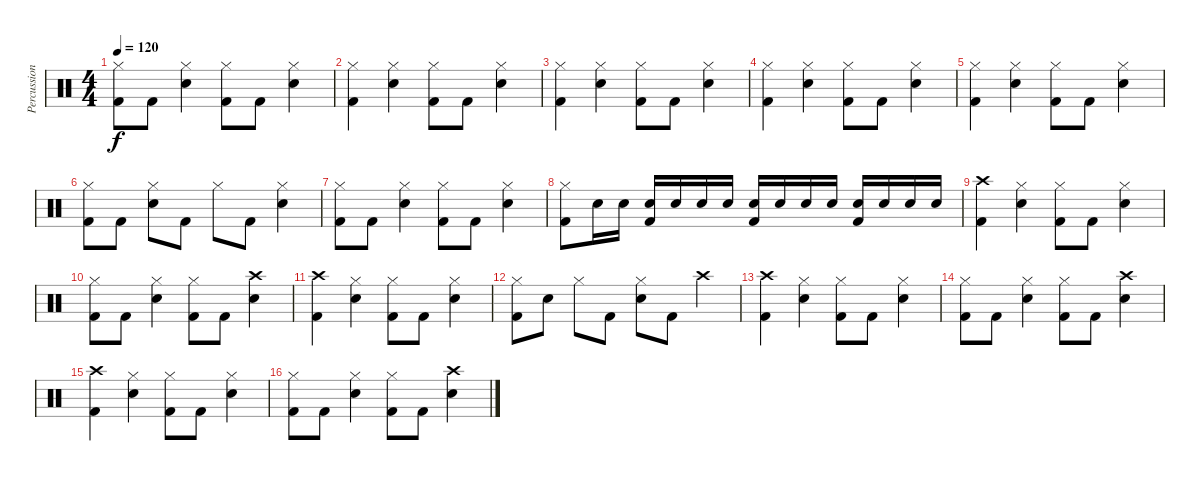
\track ("Percussion" "Percussion") {instrument percussion}
\staff {score}
\articulation defaults
\ts (4 4)
\tempo 120
\clef neutral
\ks c
("Hi-Hat (closed)" "Kick (hit) 2").8{dy f} "Kick (hit) 2".8 ("Hi-Hat (closed)" "Snare (hit) 2").4 ("Hi-Hat (closed)" "Kick (hit) 2").8 "Kick (hit) 2".8 ("Hi-Hat (closed)" "Snare (hit) 2").4 |
("Hi-Hat (closed)" "Kick (hit) 2").4 ("Hi-Hat (closed)" "Snare (hit) 2").4 ("Hi-Hat (closed)" "Kick (hit) 2").8 "Kick (hit) 2".8 ("Hi-Hat (closed)" "Snare (hit) 2").4 |
("Hi-Hat (closed)" "Kick (hit) 2").4 ("Hi-Hat (closed)" "Snare (hit) 2").4 ("Hi-Hat (closed)" "Kick (hit) 2").8 "Kick (hit) 2".8 ("Hi-Hat (closed)" "Snare (hit) 2").4 |
("Hi-Hat (closed)" "Kick (hit) 2").4 ("Hi-Hat (closed)" "Snare (hit) 2").4 ("Hi-Hat (closed)" "Kick (hit) 2").8 "Kick (hit) 2".8 ("Hi-Hat (closed)" "Snare (hit) 2").4 |
("Hi-Hat (closed)" "Kick (hit) 2").4 ("Hi-Hat (closed)" "Snare (hit) 2").4 ("Hi-Hat (closed)" "Kick (hit) 2").8 "Kick (hit) 2".8 ("Hi-Hat (closed)" "Snare (hit) 2").4 |
("Hi-Hat (closed)" "Kick (hit) 2").8 "Kick (hit) 2".8 ("Hi-Hat (closed)" "Snare (hit) 2").8 "Kick (hit) 2".8 "Hi-Hat (closed)".8 "Kick (hit) 2".8 ("Hi-Hat (closed)" "Snare (hit) 2").4 |
("Hi-Hat (closed)" "Kick (hit) 2").8 "Kick (hit) 2".8 ("Hi-Hat (closed)" "Snare (hit) 2").4 ("Hi-Hat (closed)" "Kick (hit) 2").8 "Kick (hit) 2".8 ("Hi-Hat (closed)" "Snare (hit) 2").4 |
("Hi-Hat (closed)" "Kick (hit) 2").8 "Snare (hit) 2".16 "Snare (hit) 2".16 ("Snare (hit) 2" "Kick (hit) 2").16 "Snare (hit) 2".16 "Snare (hit) 2".16 "Snare (hit) 2".16 ("Snare (hit) 2" "Kick (hit) 2").16 "Snare (hit) 2".16 "Snare (hit) 2".16 "Snare (hit) 2".16 ("Snare (hit) 2" "Kick (hit) 2").16 "Snare (hit) 2".16 "Snare (hit) 2".16 "Snare (hit) 2".16 |
("Crash high (hit)" "Kick (hit) 2").4 ("Hi-Hat (closed)" "Snare (hit) 2").4 ("Hi-Hat (closed)" "Kick (hit) 2").8 "Kick (hit) 2".8 ("Hi-Hat (closed)" "Snare (hit) 2").4 |
("Hi-Hat (closed)" "Kick (hit) 2").8 "Kick (hit) 2".8 ("Hi-Hat (closed)" "Snare (hit) 2").4 ("Hi-Hat (closed)" "Kick (hit) 2").8 "Kick (hit) 2".8 ("Crash high (hit)" "Snare (hit) 2").4 |
("Crash high (hit)" "Kick (hit) 2").4 ("Hi-Hat (closed)" "Snare (hit) 2").4 ("Hi-Hat (closed)" "Kick (hit) 2").8 "Kick (hit) 2".8 ("Hi-Hat (closed)" "Snare (hit) 2").4 |
("Hi-Hat (closed)" "Kick (hit) 2").8 "Snare (hit) 2".8 "Hi-Hat (closed)".8 "Kick (hit) 2".8 ("Hi-Hat (closed)" "Snare (hit) 2").8 "Kick (hit) 2".8 "Crash high (hit)".4 |
("Crash high (hit)" "Kick (hit) 2").4 ("Hi-Hat (closed)" "Snare (hit) 2").4 ("Hi-Hat (closed)" "Kick (hit) 2").8 "Kick (hit) 2".8 ("Hi-Hat (closed)" "Snare (hit) 2").4 |
("Hi-Hat (closed)" "Kick (hit) 2").8 "Kick (hit) 2".8 ("Hi-Hat (closed)" "Snare (hit) 2").4 ("Hi-Hat (closed)" "Kick (hit) 2").8 "Kick (hit) 2".8 ("Crash high (hit)" "Snare (hit) 2").4 |
("Crash high (hit)" "Kick (hit) 2").4 ("Hi-Hat (closed)" "Snare (hit) 2").4 ("Hi-Hat (closed)" "Kick (hit) 2").8 "Kick (hit) 2".8 ("Hi-Hat (closed)" "Snare (hit) 2").4 |
("Hi-Hat (closed)" "Kick (hit) 2").8 "Kick (hit) 2".8 ("Hi-Hat (closed)" "Snare (hit) 2").4 ("Hi-Hat (closed)" "Kick (hit) 2").8 "Kick (hit) 2".8 ("Crash high (hit)" "Snare (hit) 2").4
